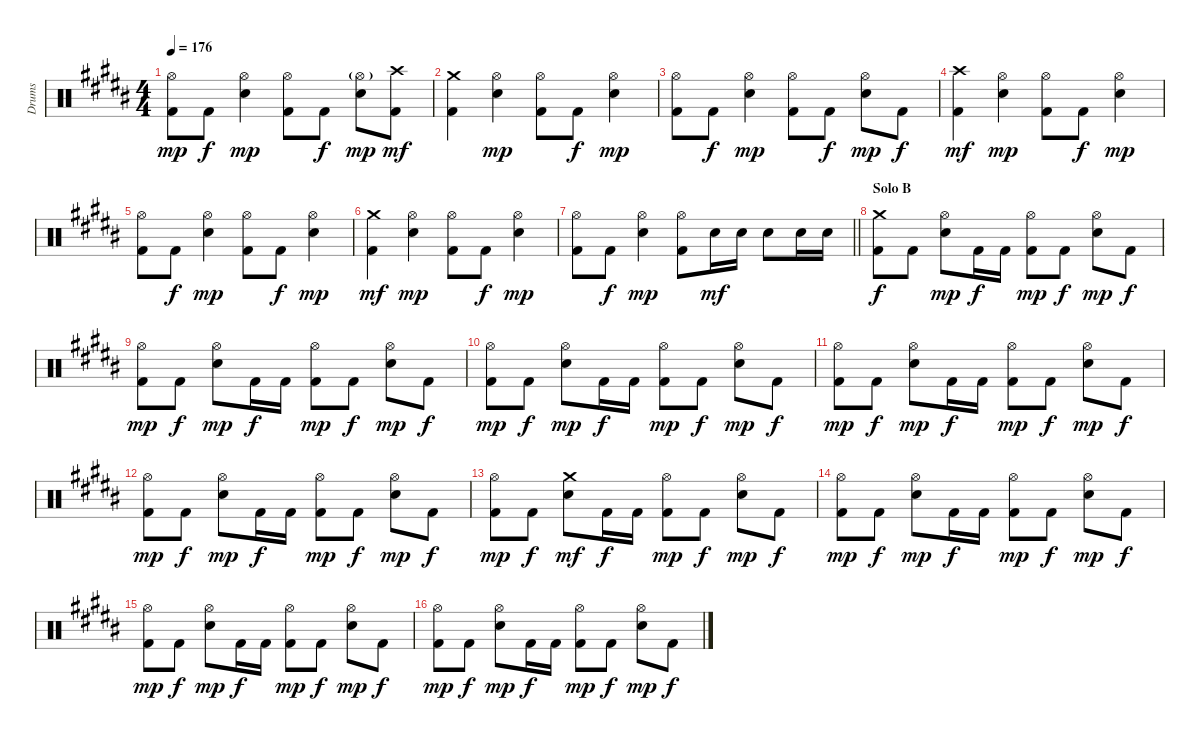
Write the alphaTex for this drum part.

\track ("Drums" "Drums") {instrument percussion}
\staff {score}
\articulation defaults
\ts (4 4)
\tempo 176
\clef neutral
\ks g#minor
("Hi-Hat (open)" "Kick (hit) 2").8{dy mp} "Kick (hit) 2".8{dy f} ("Hi-Hat (open)" "Electric Snare (hit)").4{dy mp} ("Hi-Hat (open)" "Kick (hit) 2").8 "Kick (hit) 2".8{dy f} ("Hi-Hat (open)"{g} "Electric Snare (hit)").8{dy mp} ("Crash high (hit)" "Kick (hit) 2").8{dy mf} |
("Crash medium (hit)" "Kick (hit) 2").4 ("Hi-Hat (open)" "Electric Snare (hit)").4{dy mp} ("Hi-Hat (open)" "Kick (hit) 2").8 "Kick (hit) 2".8{dy f} ("Hi-Hat (open)" "Electric Snare (hit)").4{dy mp} |
("Hi-Hat (open)" "Kick (hit) 2").8 "Kick (hit) 2".8{dy f} ("Hi-Hat (open)" "Electric Snare (hit)").4{dy mp} ("Hi-Hat (open)" "Kick (hit) 2").8 "Kick (hit) 2".8{dy f} ("Hi-Hat (open)" "Electric Snare (hit)").8{dy mp} "Kick (hit) 2".8{dy f} |
("Crash high (hit)" "Kick (hit) 2").4{dy mf} ("Hi-Hat (open)" "Electric Snare (hit)").4{dy mp} ("Hi-Hat (open)" "Kick (hit) 2").8 "Kick (hit) 2".8{dy f} ("Hi-Hat (open)" "Electric Snare (hit)").4{dy mp} |
("Hi-Hat (open)" "Kick (hit) 2").8 "Kick (hit) 2".8{dy f} ("Hi-Hat (open)" "Electric Snare (hit)").4{dy mp} ("Hi-Hat (open)" "Kick (hit) 2").8 "Kick (hit) 2".8{dy f} ("Hi-Hat (open)" "Electric Snare (hit)").4{dy mp} |
("Crash medium (hit)" "Kick (hit) 2").4{dy mf} ("Hi-Hat (open)" "Electric Snare (hit)").4{dy mp} ("Hi-Hat (open)" "Kick (hit) 2").8 "Kick (hit) 2".8{dy f} ("Hi-Hat (open)" "Electric Snare (hit)").4{dy mp} |
\barLineRight lightlight
("Hi-Hat (open)" "Kick (hit) 2").8 "Kick (hit) 2".8{dy f} ("Hi-Hat (open)" "Electric Snare (hit)").4{dy mp} ("Hi-Hat (open)" "Kick (hit) 2").8 "Electric Snare (hit)".16{dy mf} "Electric Snare (hit)".16 "Electric Snare (hit)".8 "Electric Snare (hit)".16 "Electric Snare (hit)".16 |
\section ("" "Solo B")
("Crash medium (hit)" "Kick (hit) 2").8{dy f} "Kick (hit) 2".8 ("Hi-Hat (open)" "Electric Snare (hit)").8{dy mp} "Kick (hit) 2".16{dy f} "Kick (hit) 2".16 ("Hi-Hat (open)" "Kick (hit) 2").8{dy mp} "Kick (hit) 2".8{dy f} ("Hi-Hat (open)" "Electric Snare (hit)").8{dy mp} "Kick (hit) 2".8{dy f} |
("Hi-Hat (open)" "Kick (hit) 2").8{dy mp} "Kick (hit) 2".8{dy f} ("Hi-Hat (open)" "Electric Snare (hit)").8{dy mp} "Kick (hit) 2".16{dy f} "Kick (hit) 2".16 ("Hi-Hat (open)" "Kick (hit) 2").8{dy mp} "Kick (hit) 2".8{dy f} ("Hi-Hat (open)" "Electric Snare (hit)").8{dy mp} "Kick (hit) 2".8{dy f} |
("Hi-Hat (open)" "Kick (hit) 2").8{dy mp} "Kick (hit) 2".8{dy f} ("Hi-Hat (open)" "Electric Snare (hit)").8{dy mp} "Kick (hit) 2".16{dy f} "Kick (hit) 2".16 ("Hi-Hat (open)" "Kick (hit) 2").8{dy mp} "Kick (hit) 2".8{dy f} ("Hi-Hat (open)" "Electric Snare (hit)").8{dy mp} "Kick (hit) 2".8{dy f} |
("Hi-Hat (open)" "Kick (hit) 2").8{dy mp} "Kick (hit) 2".8{dy f} ("Hi-Hat (open)" "Electric Snare (hit)").8{dy mp} "Kick (hit) 2".16{dy f} "Kick (hit) 2".16 ("Hi-Hat (open)" "Kick (hit) 2").8{dy mp} "Kick (hit) 2".8{dy f} ("Hi-Hat (open)" "Electric Snare (hit)").8{dy mp} "Kick (hit) 2".8{dy f} |
("Hi-Hat (open)" "Kick (hit) 2").8{dy mp} "Kick (hit) 2".8{dy f} ("Hi-Hat (open)" "Electric Snare (hit)").8{dy mp} "Kick (hit) 2".16{dy f} "Kick (hit) 2".16 ("Hi-Hat (open)" "Kick (hit) 2").8{dy mp} "Kick (hit) 2".8{dy f} ("Hi-Hat (open)" "Electric Snare (hit)").8{dy mp} "Kick (hit) 2".8{dy f} |
("Hi-Hat (open)" "Kick (hit) 2").8{dy mp} "Kick (hit) 2".8{dy f} ("Crash medium (hit)" "Electric Snare (hit)").8{dy mf} "Kick (hit) 2".16{dy f} "Kick (hit) 2".16 ("Hi-Hat (open)" "Kick (hit) 2").8{dy mp} "Kick (hit) 2".8{dy f} ("Hi-Hat (open)" "Electric Snare (hit)").8{dy mp} "Kick (hit) 2".8{dy f} |
("Hi-Hat (open)" "Kick (hit) 2").8{dy mp} "Kick (hit) 2".8{dy f} ("Hi-Hat (open)" "Electric Snare (hit)").8{dy mp} "Kick (hit) 2".16{dy f} "Kick (hit) 2".16 ("Hi-Hat (open)" "Kick (hit) 2").8{dy mp} "Kick (hit) 2".8{dy f} ("Hi-Hat (open)" "Electric Snare (hit)").8{dy mp} "Kick (hit) 2".8{dy f} |
("Hi-Hat (open)" "Kick (hit) 2").8{dy mp} "Kick (hit) 2".8{dy f} ("Hi-Hat (open)" "Electric Snare (hit)").8{dy mp} "Kick (hit) 2".16{dy f} "Kick (hit) 2".16 ("Hi-Hat (open)" "Kick (hit) 2").8{dy mp} "Kick (hit) 2".8{dy f} ("Hi-Hat (open)" "Electric Snare (hit)").8{dy mp} "Kick (hit) 2".8{dy f} |
("Hi-Hat (open)" "Kick (hit) 2").8{dy mp} "Kick (hit) 2".8{dy f} ("Hi-Hat (open)" "Electric Snare (hit)").8{dy mp} "Kick (hit) 2".16{dy f} "Kick (hit) 2".16 ("Hi-Hat (open)" "Kick (hit) 2").8{dy mp} "Kick (hit) 2".8{dy f} ("Hi-Hat (open)" "Electric Snare (hit)").8{dy mp} "Kick (hit) 2".8{dy f}
